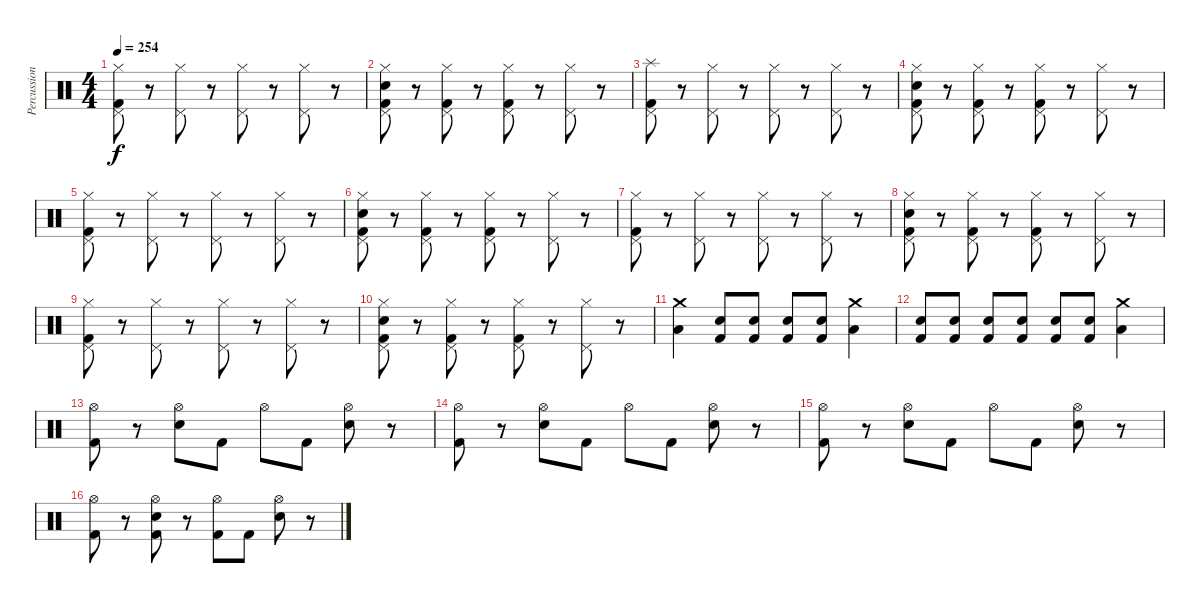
\track ("Percussion" "Percussion") {instrument percussion}
\staff {score}
\articulation defaults
\ts (4 4)
\tempo 254
\clef neutral
\ks c
("Hi-Hat (closed)" "Pedal Hi-Hat (hit)" "Kick (hit) 2").8{dy f} r.8 ("Hi-Hat (closed)" "Pedal Hi-Hat (hit)").8 r.8 ("Hi-Hat (closed)" "Pedal Hi-Hat (hit)").8 r.8 ("Hi-Hat (closed)" "Pedal Hi-Hat (hit)").8 r.8 |
("Hi-Hat (closed)" "Pedal Hi-Hat (hit)" "Electric Snare (hit)" "Kick (hit) 2").8 r.8 ("Hi-Hat (closed)" "Pedal Hi-Hat (hit)" "Kick (hit) 2").8 r.8 ("Hi-Hat (closed)" "Pedal Hi-Hat (hit)" "Kick (hit) 2").8 r.8 ("Hi-Hat (closed)" "Pedal Hi-Hat (hit)").8 r.8 |
("Splash (hit)" "Pedal Hi-Hat (hit)" "Kick (hit) 2").8 r.8 ("Hi-Hat (closed)" "Pedal Hi-Hat (hit)").8 r.8 ("Hi-Hat (closed)" "Pedal Hi-Hat (hit)").8 r.8 ("Hi-Hat (closed)" "Pedal Hi-Hat (hit)").8 r.8 |
("Hi-Hat (closed)" "Pedal Hi-Hat (hit)" "Electric Snare (hit)" "Kick (hit) 2").8 r.8 ("Hi-Hat (closed)" "Pedal Hi-Hat (hit)" "Kick (hit) 2").8 r.8 ("Hi-Hat (closed)" "Pedal Hi-Hat (hit)" "Kick (hit) 2").8 r.8 ("Hi-Hat (closed)" "Pedal Hi-Hat (hit)").8 r.8 |
("Hi-Hat (closed)" "Pedal Hi-Hat (hit)" "Kick (hit) 2").8 r.8 ("Hi-Hat (closed)" "Pedal Hi-Hat (hit)").8 r.8 ("Hi-Hat (closed)" "Pedal Hi-Hat (hit)").8 r.8 ("Hi-Hat (closed)" "Pedal Hi-Hat (hit)").8 r.8 |
("Hi-Hat (closed)" "Pedal Hi-Hat (hit)" "Electric Snare (hit)" "Kick (hit) 2").8 r.8 ("Hi-Hat (closed)" "Pedal Hi-Hat (hit)" "Kick (hit) 2").8 r.8 ("Hi-Hat (closed)" "Pedal Hi-Hat (hit)" "Kick (hit) 2").8 r.8 ("Hi-Hat (closed)" "Pedal Hi-Hat (hit)").8 r.8 |
("Hi-Hat (closed)" "Pedal Hi-Hat (hit)" "Kick (hit) 2").8 r.8 ("Hi-Hat (closed)" "Pedal Hi-Hat (hit)").8 r.8 ("Hi-Hat (closed)" "Pedal Hi-Hat (hit)").8 r.8 ("Hi-Hat (closed)" "Pedal Hi-Hat (hit)").8 r.8 |
("Hi-Hat (closed)" "Pedal Hi-Hat (hit)" "Electric Snare (hit)" "Kick (hit) 2").8 r.8 ("Hi-Hat (closed)" "Pedal Hi-Hat (hit)" "Kick (hit) 2").8 r.8 ("Hi-Hat (closed)" "Pedal Hi-Hat (hit)" "Kick (hit) 2").8 r.8 ("Hi-Hat (closed)" "Pedal Hi-Hat (hit)").8 r.8 |
("Hi-Hat (closed)" "Pedal Hi-Hat (hit)" "Kick (hit) 2").8 r.8 ("Hi-Hat (closed)" "Pedal Hi-Hat (hit)").8 r.8 ("Hi-Hat (closed)" "Pedal Hi-Hat (hit)").8 r.8 ("Hi-Hat (closed)" "Pedal Hi-Hat (hit)").8 r.8 |
("Hi-Hat (closed)" "Pedal Hi-Hat (hit)" "Electric Snare (hit)" "Kick (hit) 2").8 r.8 ("Hi-Hat (closed)" "Pedal Hi-Hat (hit)" "Kick (hit) 2").8 r.8 ("Hi-Hat (closed)" "Pedal Hi-Hat (hit)" "Kick (hit) 2").8 r.8 ("Hi-Hat (closed)" "Pedal Hi-Hat (hit)").8 r.8 |
("Crash medium (hit)" "Low Floor Tom (hit)").4 ("Electric Snare (hit)" "Kick (hit) 2").8 ("Electric Snare (hit)" "Kick (hit) 2").8 ("Electric Snare (hit)" "Kick (hit) 2").8 ("Electric Snare (hit)" "Kick (hit) 2").8 ("Crash medium (hit)" "Low Floor Tom (hit)").4 |
("Electric Snare (hit)" "Kick (hit) 2").8 ("Electric Snare (hit)" "Kick (hit) 2").8 ("Electric Snare (hit)" "Kick (hit) 2").8 ("Electric Snare (hit)" "Kick (hit) 2").8 ("Electric Snare (hit)" "Kick (hit) 2").8 ("Electric Snare (hit)" "Kick (hit) 2").8 ("Crash medium (hit)" "Low Floor Tom (hit)").4 |
("Hi-Hat (open)" "Kick (hit) 2").8 r.8 ("Hi-Hat (open)" "Electric Snare (hit)").8 "Kick (hit) 2".8 "Hi-Hat (open)".8 "Kick (hit) 2".8 ("Hi-Hat (open)" "Electric Snare (hit)").8 r.8 |
("Hi-Hat (open)" "Kick (hit) 2").8 r.8 ("Hi-Hat (open)" "Electric Snare (hit)").8 "Kick (hit) 2".8 "Hi-Hat (open)".8 "Kick (hit) 2".8 ("Hi-Hat (open)" "Electric Snare (hit)").8 r.8 |
("Hi-Hat (open)" "Kick (hit) 2").8 r.8 ("Hi-Hat (open)" "Electric Snare (hit)").8 "Kick (hit) 2".8 "Hi-Hat (open)".8 "Kick (hit) 2".8 ("Hi-Hat (open)" "Electric Snare (hit)").8 r.8 |
("Hi-Hat (open)" "Kick (hit) 2").8 r.8 ("Hi-Hat (open)" "Electric Snare (hit)" "Kick (hit) 2").8 r.8 ("Hi-Hat (open)" "Kick (hit) 2").8 "Kick (hit) 2".8 ("Hi-Hat (open)" "Electric Snare (hit)").8 r.8
